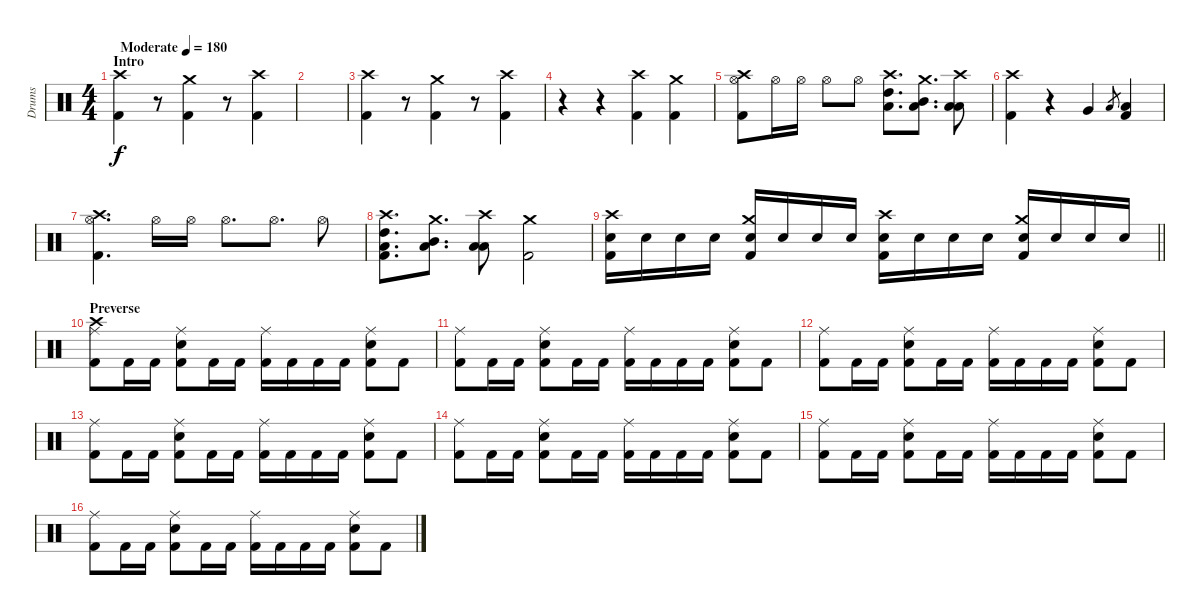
\track ("Drums" "Drums") {instrument percussion}
\staff {score}
\articulation defaults
\ts (4 4)
\section ("" "Intro")
\tempo (180 "Moderate")
\clef neutral
\ks c
("Crash high (hit)" "Kick (hit) 2").4{dy f} r.8 ("Crash medium (hit)" "Kick (hit) 2").4 r.8 ("Crash high (hit)" "Kick (hit) 2").4 |
|
("Crash high (hit)" "Kick (hit) 2").4 r.8 ("Crash medium (hit)" "Kick (hit) 2").4 r.8 ("Crash high (hit)" "Kick (hit) 2").4 |
r.4 r.4 ("Crash high (hit)" "Kick (hit) 2").4 ("Crash medium (hit)" "Kick (hit) 2").4 |
("Crash high (hit)" "Hi-Hat (open)" "Kick (hit) 2").8 "Hi-Hat (open)".16 "Hi-Hat (open)".16 "Hi-Hat (open)".8 "Hi-Hat (open)".8 ("Crash high (hit)" "High Tom (hit)" "Low Floor Tom (hit)").8{d} ("Crash medium (hit)" "Mid Tom (hit)" "Low Floor Tom (hit)").8{d} ("Crash high (hit)" "Low Tom (hit)" "Low Floor Tom (hit)").8 |
("Crash high (hit)" "Kick (hit) 2").4 r.4 "Very Low Tom (hit)".4 "Low Floor Tom (hit)".8{gr} ("Low Floor Tom (hit)" "Kick (hit) 2").4 |
("Crash high (hit)" "Hi-Hat (open)" "Kick (hit) 2").4{d} "Hi-Hat (open)".16 "Hi-Hat (open)".16 "Hi-Hat (open)".8{d} "Hi-Hat (open)".8{d} "Hi-Hat (open)".8 |
("Crash high (hit)" "High Tom (hit)" "Low Floor Tom (hit)" "Kick (hit) 2").8{d} ("Crash medium (hit)" "Mid Tom (hit)" "Low Floor Tom (hit)").8{d} ("Crash high (hit)" "Low Tom (hit)" "Low Floor Tom (hit)").8 ("Crash medium (hit)" "Kick (hit) 2").2 |
\barLineRight lightlight
("Crash high (hit)" "Snare (hit) 2" "Kick (hit) 2").16 "Snare (hit) 2".16 "Snare (hit) 2".16 "Snare (hit) 2".16 ("Crash medium (hit)" "Snare (hit) 2" "Kick (hit) 2").16 "Snare (hit) 2".16 "Snare (hit) 2".16 "Snare (hit) 2".16 ("Crash high (hit)" "Snare (hit) 2" "Kick (hit) 2").16 "Snare (hit) 2".16 "Snare (hit) 2".16 "Snare (hit) 2".16 ("Crash medium (hit)" "Snare (hit) 2" "Kick (hit) 2").16 "Snare (hit) 2".16 "Snare (hit) 2".16 "Snare (hit) 2".16 |
\section ("" "Preverse")
("Crash high (hit)" "Ride (middle)" "Kick (hit) 2").8 "Kick (hit) 2".16 "Kick (hit) 2".16 ("Ride (middle)" "Snare (hit) 2" "Kick (hit) 2").8 "Kick (hit) 2".16 "Kick (hit) 2".16 ("Ride (middle)" "Kick (hit) 2").16 "Kick (hit) 2".16 "Kick (hit) 2".16 "Kick (hit) 2".16 ("Ride (middle)" "Snare (hit) 2" "Kick (hit) 2").8 "Kick (hit) 2".8 |
("Ride (middle)" "Kick (hit) 2").8 "Kick (hit) 2".16 "Kick (hit) 2".16 ("Ride (middle)" "Snare (hit) 2" "Kick (hit) 2").8 "Kick (hit) 2".16 "Kick (hit) 2".16 ("Ride (middle)" "Kick (hit) 2").16 "Kick (hit) 2".16 "Kick (hit) 2".16 "Kick (hit) 2".16 ("Ride (middle)" "Snare (hit) 2" "Kick (hit) 2").8 "Kick (hit) 2".8 |
("Ride (middle)" "Kick (hit) 2").8 "Kick (hit) 2".16 "Kick (hit) 2".16 ("Ride (middle)" "Snare (hit) 2" "Kick (hit) 2").8 "Kick (hit) 2".16 "Kick (hit) 2".16 ("Ride (middle)" "Kick (hit) 2").16 "Kick (hit) 2".16 "Kick (hit) 2".16 "Kick (hit) 2".16 ("Ride (middle)" "Snare (hit) 2" "Kick (hit) 2").8 "Kick (hit) 2".8 |
("Ride (middle)" "Kick (hit) 2").8 "Kick (hit) 2".16 "Kick (hit) 2".16 ("Ride (middle)" "Snare (hit) 2" "Kick (hit) 2").8 "Kick (hit) 2".16 "Kick (hit) 2".16 ("Ride (middle)" "Kick (hit) 2").16 "Kick (hit) 2".16 "Kick (hit) 2".16 "Kick (hit) 2".16 ("Ride (middle)" "Snare (hit) 2" "Kick (hit) 2").8 "Kick (hit) 2".8 |
("Ride (middle)" "Kick (hit) 2").8 "Kick (hit) 2".16 "Kick (hit) 2".16 ("Ride (middle)" "Snare (hit) 2" "Kick (hit) 2").8 "Kick (hit) 2".16 "Kick (hit) 2".16 ("Ride (middle)" "Kick (hit) 2").16 "Kick (hit) 2".16 "Kick (hit) 2".16 "Kick (hit) 2".16 ("Ride (middle)" "Snare (hit) 2" "Kick (hit) 2").8 "Kick (hit) 2".8 |
("Ride (middle)" "Kick (hit) 2").8 "Kick (hit) 2".16 "Kick (hit) 2".16 ("Ride (middle)" "Snare (hit) 2" "Kick (hit) 2").8 "Kick (hit) 2".16 "Kick (hit) 2".16 ("Ride (middle)" "Kick (hit) 2").16 "Kick (hit) 2".16 "Kick (hit) 2".16 "Kick (hit) 2".16 ("Ride (middle)" "Snare (hit) 2" "Kick (hit) 2").8 "Kick (hit) 2".8 |
("Ride (middle)" "Kick (hit) 2").8 "Kick (hit) 2".16 "Kick (hit) 2".16 ("Ride (middle)" "Snare (hit) 2" "Kick (hit) 2").8 "Kick (hit) 2".16 "Kick (hit) 2".16 ("Ride (middle)" "Kick (hit) 2").16 "Kick (hit) 2".16 "Kick (hit) 2".16 "Kick (hit) 2".16 ("Ride (middle)" "Snare (hit) 2" "Kick (hit) 2").8 "Kick (hit) 2".8
